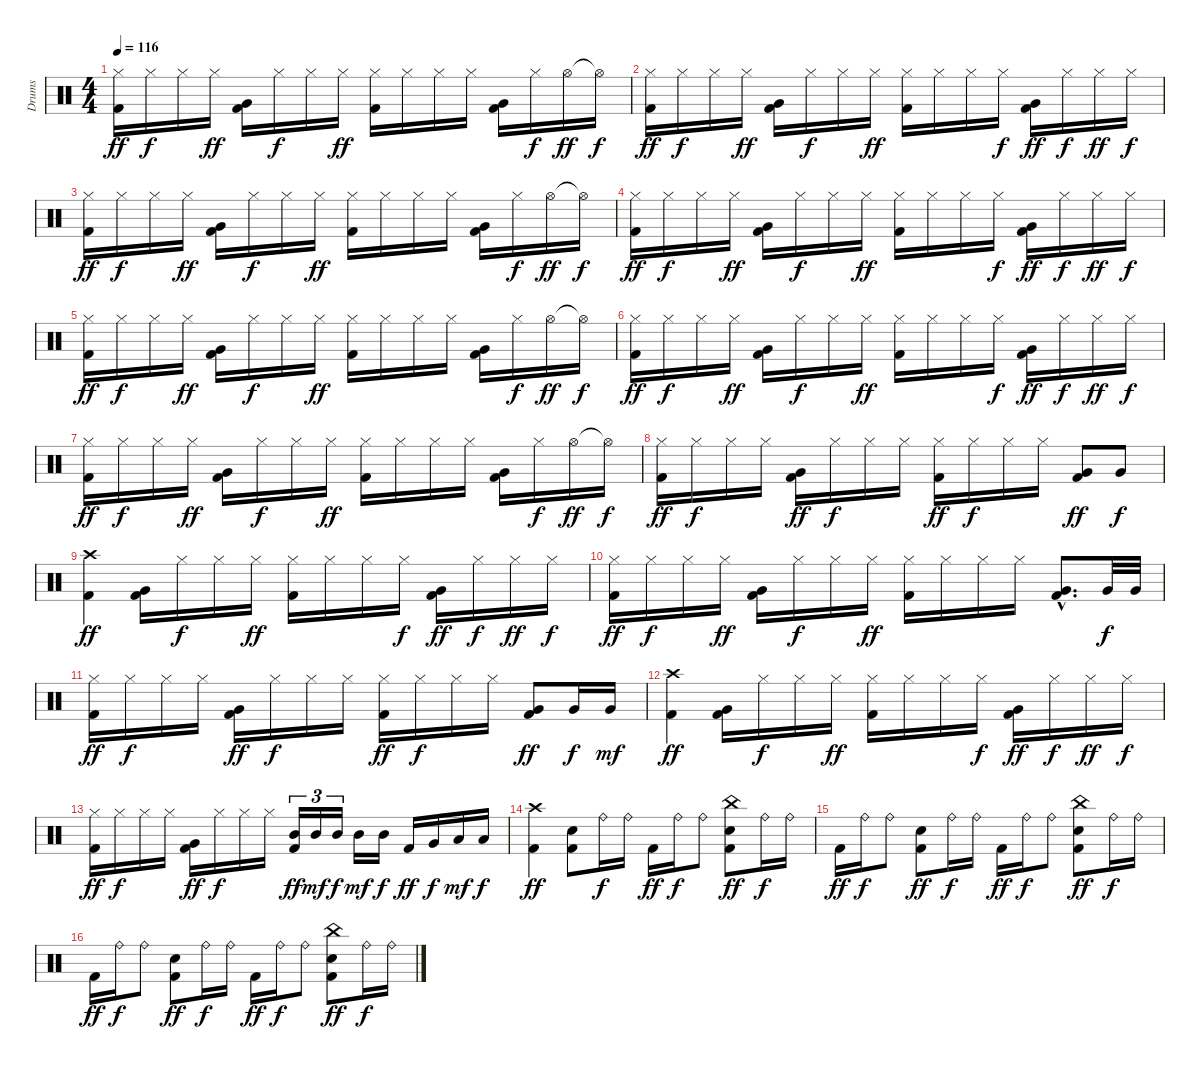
\track ("Drums" "Drums") {instrument percussion}
\staff {score}
\articulation defaults
\ts (4 4)
\tempo 116
\clef neutral
\ks c
("Hi-Hat (closed)" "Kick (hit) 2").16{dy ff} "Hi-Hat (closed)".16{dy f} "Hi-Hat (closed)".16 "Hi-Hat (closed)".16{dy ff} ("Very Low Tom (hit)" "Kick (hit) 2").16 "Hi-Hat (closed)".16{dy f} "Hi-Hat (closed)".16 "Hi-Hat (closed)".16{dy ff} ("Hi-Hat (closed)" "Kick (hit) 2").16 "Hi-Hat (closed)".16 "Hi-Hat (closed)".16 "Hi-Hat (closed)".16 ("Very Low Tom (hit)" "Kick (hit) 2").16 "Hi-Hat (closed)".16{dy f} "Hi-Hat (open)".16{dy ff} "Hi-Hat (open)"{t}.16{dy f} |
("Hi-Hat (closed)" "Kick (hit) 2").16{dy ff} "Hi-Hat (closed)".16{dy f} "Hi-Hat (closed)".16 "Hi-Hat (closed)".16{dy ff} ("Very Low Tom (hit)" "Kick (hit) 2").16 "Hi-Hat (closed)".16{dy f} "Hi-Hat (closed)".16 "Hi-Hat (closed)".16{dy ff} ("Hi-Hat (closed)" "Kick (hit) 2").16 "Hi-Hat (closed)".16 "Hi-Hat (closed)".16 "Hi-Hat (closed)".16{dy f} ("Very Low Tom (hit)" "Kick (hit) 2").16{dy ff} "Hi-Hat (closed)".16{dy f} "Hi-Hat (closed)".16{dy ff} "Hi-Hat (closed)".16{dy f} |
("Hi-Hat (closed)" "Kick (hit) 2").16{dy ff} "Hi-Hat (closed)".16{dy f} "Hi-Hat (closed)".16 "Hi-Hat (closed)".16{dy ff} ("Very Low Tom (hit)" "Kick (hit) 2").16 "Hi-Hat (closed)".16{dy f} "Hi-Hat (closed)".16 "Hi-Hat (closed)".16{dy ff} ("Hi-Hat (closed)" "Kick (hit) 2").16 "Hi-Hat (closed)".16 "Hi-Hat (closed)".16 "Hi-Hat (closed)".16 ("Very Low Tom (hit)" "Kick (hit) 2").16 "Hi-Hat (closed)".16{dy f} "Hi-Hat (open)".16{dy ff} "Hi-Hat (open)"{t}.16{dy f} |
("Hi-Hat (closed)" "Kick (hit) 2").16{dy ff} "Hi-Hat (closed)".16{dy f} "Hi-Hat (closed)".16 "Hi-Hat (closed)".16{dy ff} ("Very Low Tom (hit)" "Kick (hit) 2").16 "Hi-Hat (closed)".16{dy f} "Hi-Hat (closed)".16 "Hi-Hat (closed)".16{dy ff} ("Hi-Hat (closed)" "Kick (hit) 2").16 "Hi-Hat (closed)".16 "Hi-Hat (closed)".16 "Hi-Hat (closed)".16{dy f} ("Very Low Tom (hit)" "Kick (hit) 2").16{dy ff} "Hi-Hat (closed)".16{dy f} "Hi-Hat (closed)".16{dy ff} "Hi-Hat (closed)".16{dy f} |
("Hi-Hat (closed)" "Kick (hit) 2").16{dy ff} "Hi-Hat (closed)".16{dy f} "Hi-Hat (closed)".16 "Hi-Hat (closed)".16{dy ff} ("Very Low Tom (hit)" "Kick (hit) 2").16 "Hi-Hat (closed)".16{dy f} "Hi-Hat (closed)".16 "Hi-Hat (closed)".16{dy ff} ("Hi-Hat (closed)" "Kick (hit) 2").16 "Hi-Hat (closed)".16 "Hi-Hat (closed)".16 "Hi-Hat (closed)".16 ("Very Low Tom (hit)" "Kick (hit) 2").16 "Hi-Hat (closed)".16{dy f} "Hi-Hat (open)".16{dy ff} "Hi-Hat (open)"{t}.16{dy f} |
("Hi-Hat (closed)" "Kick (hit) 2").16{dy ff} "Hi-Hat (closed)".16{dy f} "Hi-Hat (closed)".16 "Hi-Hat (closed)".16{dy ff} ("Very Low Tom (hit)" "Kick (hit) 2").16 "Hi-Hat (closed)".16{dy f} "Hi-Hat (closed)".16 "Hi-Hat (closed)".16{dy ff} ("Hi-Hat (closed)" "Kick (hit) 2").16 "Hi-Hat (closed)".16 "Hi-Hat (closed)".16 "Hi-Hat (closed)".16{dy f} ("Very Low Tom (hit)" "Kick (hit) 2").16{dy ff} "Hi-Hat (closed)".16{dy f} "Hi-Hat (closed)".16{dy ff} "Hi-Hat (closed)".16{dy f} |
("Hi-Hat (closed)" "Kick (hit) 2").16{dy ff} "Hi-Hat (closed)".16{dy f} "Hi-Hat (closed)".16 "Hi-Hat (closed)".16{dy ff} ("Very Low Tom (hit)" "Kick (hit) 2").16 "Hi-Hat (closed)".16{dy f} "Hi-Hat (closed)".16 "Hi-Hat (closed)".16{dy ff} ("Hi-Hat (closed)" "Kick (hit) 2").16 "Hi-Hat (closed)".16 "Hi-Hat (closed)".16 "Hi-Hat (closed)".16 ("Very Low Tom (hit)" "Kick (hit) 2").16 "Hi-Hat (closed)".16{dy f} "Hi-Hat (open)".16{dy ff} "Hi-Hat (open)"{t}.16{dy f} |
("Hi-Hat (closed)" "Kick (hit) 2").16{dy ff} "Hi-Hat (closed)".16{dy f} "Hi-Hat (closed)".16 "Hi-Hat (closed)".16 ("Very Low Tom (hit)" "Kick (hit) 2").16{dy ff} "Hi-Hat (closed)".16{dy f} "Hi-Hat (closed)".16 "Hi-Hat (closed)".16 ("Hi-Hat (closed)" "Kick (hit) 2").16{dy ff} "Hi-Hat (closed)".16{dy f} "Hi-Hat (closed)".16 "Hi-Hat (closed)".16 ("Very Low Tom (hit)" "Kick (hit) 2").8{dy ff} "Very Low Tom (hit)".8{dy f} |
("Crash high (hit)" "Kick (hit) 2").4{dy ff} ("Very Low Tom (hit)" "Kick (hit) 2").16 "Hi-Hat (closed)".16{dy f} "Hi-Hat (closed)".16 "Hi-Hat (closed)".16{dy ff} ("Hi-Hat (closed)" "Kick (hit) 2").16 "Hi-Hat (closed)".16 "Hi-Hat (closed)".16 "Hi-Hat (closed)".16{dy f} ("Very Low Tom (hit)" "Kick (hit) 2").16{dy ff} "Hi-Hat (closed)".16{dy f} "Hi-Hat (closed)".16{dy ff} "Hi-Hat (closed)".16{dy f} |
("Hi-Hat (closed)" "Kick (hit) 2").16{dy ff} "Hi-Hat (closed)".16{dy f} "Hi-Hat (closed)".16 "Hi-Hat (closed)".16{dy ff} ("Very Low Tom (hit)" "Kick (hit) 2").16 "Hi-Hat (closed)".16{dy f} "Hi-Hat (closed)".16 "Hi-Hat (closed)".16{dy ff} ("Hi-Hat (closed)" "Kick (hit) 2").16 "Hi-Hat (closed)".16 "Hi-Hat (closed)".16 "Hi-Hat (closed)".16 ("Very Low Tom (hit)"{hac} "Kick (hit) 2"{hac}).8{d} "Very Low Tom (hit)".32{dy f} "Very Low Tom (hit)".32 |
("Hi-Hat (closed)" "Kick (hit) 2").16{dy ff} "Hi-Hat (closed)".16{dy f} "Hi-Hat (closed)".16 "Hi-Hat (closed)".16 ("Very Low Tom (hit)" "Kick (hit) 2").16{dy ff} "Hi-Hat (closed)".16{dy f} "Hi-Hat (closed)".16 "Hi-Hat (closed)".16 ("Hi-Hat (closed)" "Kick (hit) 2").16{dy ff} "Hi-Hat (closed)".16{dy f} "Hi-Hat (closed)".16 "Hi-Hat (closed)".16 ("Very Low Tom (hit)" "Kick (hit) 2").8{dy ff} "Very Low Tom (hit)".16{dy f} "Very Low Tom (hit)".16{dy mf} |
("Crash high (hit)" "Kick (hit) 2").4{dy ff} ("Very Low Tom (hit)" "Kick (hit) 2").16 "Hi-Hat (closed)".16{dy f} "Hi-Hat (closed)".16 "Hi-Hat (closed)".16{dy ff} ("Hi-Hat (closed)" "Kick (hit) 2").16 "Hi-Hat (closed)".16 "Hi-Hat (closed)".16 "Hi-Hat (closed)".16{dy f} ("Very Low Tom (hit)" "Kick (hit) 2").16{dy ff} "Hi-Hat (closed)".16{dy f} "Hi-Hat (closed)".16{dy ff} "Hi-Hat (closed)".16{dy f} |
("Hi-Hat (closed)" "Kick (hit) 2").16{dy ff} "Hi-Hat (closed)".16{dy f} "Hi-Hat (closed)".16 "Hi-Hat (closed)".16 ("Very Low Tom (hit)" "Kick (hit) 2").16{dy ff} "Hi-Hat (closed)".16{dy f} "Hi-Hat (closed)".16 "Hi-Hat (closed)".16 ("Mid Tom (hit)" "Kick (hit) 2").16{tu (3 2) dy ff} "Mid Tom (hit)".16{tu (3 2) dy mf} "Mid Tom (hit)".16{tu (3 2) dy f} "Mid Tom (hit)".16{dy mf} "Mid Tom (hit)".16{dy f} "Kick (hit) 2".16{dy ff} "Very Low Tom (hit)".16{dy f} "Low Floor Tom (hit)".16{dy mf} "Low Floor Tom (hit)".16{dy f} |
("Crash high (hit)" "Kick (hit) 2").4{dy ff} ("Snare (hit) 2" "Kick (hit) 2").8 "Ride (bell)".16{dy f} "Ride (bell)".16 "Kick (hit) 2".16{dy ff} "Ride (bell)".16{dy f} "Ride (bell)".8 ("China (hit)" "Snare (hit) 2" "Kick (hit) 2").8{dy ff} "Ride (bell)".16{dy f} "Ride (bell)".16 |
"Kick (hit) 2".16{dy ff} "Ride (bell)".16{dy f} "Ride (bell)".8 ("Snare (hit) 2" "Kick (hit) 2").8{dy ff} "Ride (bell)".16{dy f} "Ride (bell)".16 "Kick (hit) 2".16{dy ff} "Ride (bell)".16{dy f} "Ride (bell)".8 ("China (hit)" "Snare (hit) 2" "Kick (hit) 2").8{dy ff} "Ride (bell)".16{dy f} "Ride (bell)".16 |
"Kick (hit) 2".16{dy ff} "Ride (bell)".16{dy f} "Ride (bell)".8 ("Snare (hit) 2" "Kick (hit) 2").8{dy ff} "Ride (bell)".16{dy f} "Ride (bell)".16 "Kick (hit) 2".16{dy ff} "Ride (bell)".16{dy f} "Ride (bell)".8 ("China (hit)" "Snare (hit) 2" "Kick (hit) 2").8{dy ff} "Ride (bell)".16{dy f} "Ride (bell)".16
